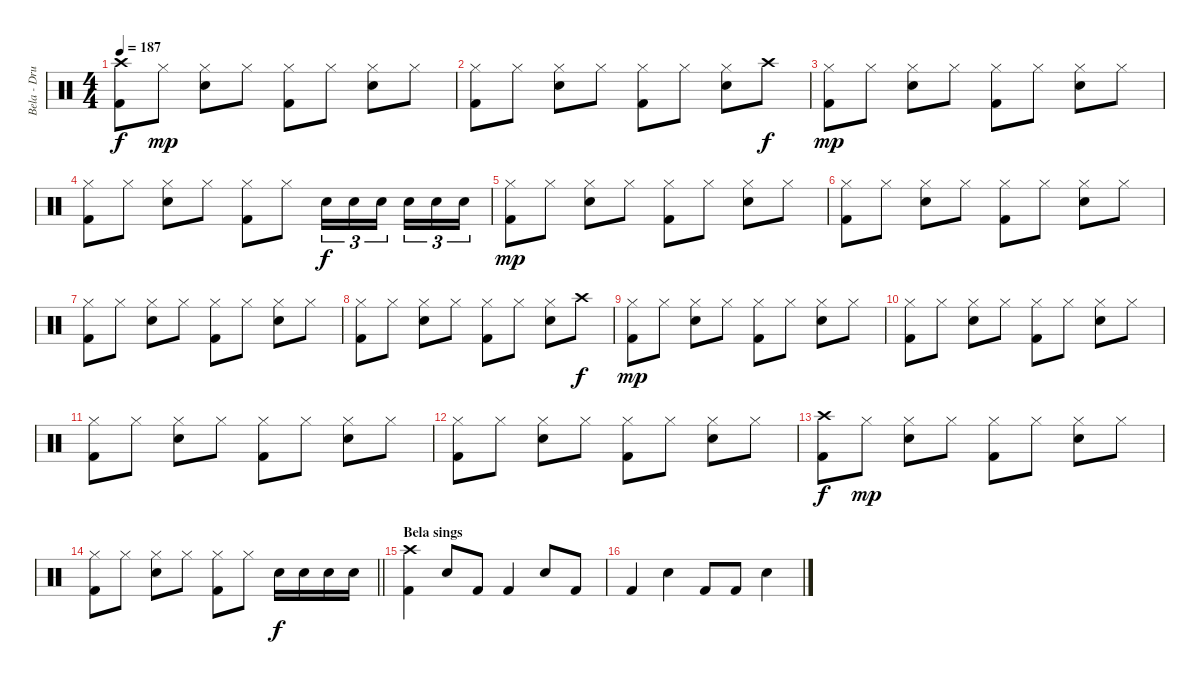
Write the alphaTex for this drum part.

\track ("Bela - Drums" "Bela - Dru") {instrument percussion}
\staff {score}
\articulation defaults
\ts (4 4)
\tempo 187
\clef neutral
\ks c
("Crash high (hit)" "Kick (hit) 2").8{dy f} "Hi-Hat (closed)".8{dy mp} ("Hi-Hat (closed)" "Snare (hit) 2").8 "Hi-Hat (closed)".8 ("Hi-Hat (closed)" "Kick (hit) 2").8 "Hi-Hat (closed)".8 ("Hi-Hat (closed)" "Snare (hit) 2").8 "Hi-Hat (closed)".8 |
("Hi-Hat (closed)" "Kick (hit) 2").8 "Hi-Hat (closed)".8 ("Hi-Hat (closed)" "Snare (hit) 2").8 "Hi-Hat (closed)".8 ("Hi-Hat (closed)" "Kick (hit) 2").8 "Hi-Hat (closed)".8 ("Hi-Hat (closed)" "Snare (hit) 2").8 "Crash high (hit)".8{dy f} |
("Hi-Hat (closed)" "Kick (hit) 2").8{dy mp} "Hi-Hat (closed)".8 ("Hi-Hat (closed)" "Snare (hit) 2").8 "Hi-Hat (closed)".8 ("Hi-Hat (closed)" "Kick (hit) 2").8 "Hi-Hat (closed)".8 ("Hi-Hat (closed)" "Snare (hit) 2").8 "Hi-Hat (closed)".8 |
("Hi-Hat (closed)" "Kick (hit) 2").8 "Hi-Hat (closed)".8 ("Hi-Hat (closed)" "Snare (hit) 2").8 "Hi-Hat (closed)".8 ("Hi-Hat (closed)" "Kick (hit) 2").8 "Hi-Hat (closed)".8 "Snare (hit) 2".16{tu (3 2) dy f} "Snare (hit) 2".16{tu (3 2)} "Snare (hit) 2".16{tu (3 2)} "Snare (hit) 2".16{tu (3 2)} "Snare (hit) 2".16{tu (3 2)} "Snare (hit) 2".16{tu (3 2)} |
("Hi-Hat (closed)" "Kick (hit) 2").8{dy mp} "Hi-Hat (closed)".8 ("Hi-Hat (closed)" "Snare (hit) 2").8 "Hi-Hat (closed)".8 ("Hi-Hat (closed)" "Kick (hit) 2").8 "Hi-Hat (closed)".8 ("Hi-Hat (closed)" "Snare (hit) 2").8 "Hi-Hat (closed)".8 |
("Hi-Hat (closed)" "Kick (hit) 2").8 "Hi-Hat (closed)".8 ("Hi-Hat (closed)" "Snare (hit) 2").8 "Hi-Hat (closed)".8 ("Hi-Hat (closed)" "Kick (hit) 2").8 "Hi-Hat (closed)".8 ("Hi-Hat (closed)" "Snare (hit) 2").8 "Hi-Hat (closed)".8 |
("Hi-Hat (closed)" "Kick (hit) 2").8 "Hi-Hat (closed)".8 ("Hi-Hat (closed)" "Snare (hit) 2").8 "Hi-Hat (closed)".8 ("Hi-Hat (closed)" "Kick (hit) 2").8 "Hi-Hat (closed)".8 ("Hi-Hat (closed)" "Snare (hit) 2").8 "Hi-Hat (closed)".8 |
("Hi-Hat (closed)" "Kick (hit) 2").8 "Hi-Hat (closed)".8 ("Hi-Hat (closed)" "Snare (hit) 2").8 "Hi-Hat (closed)".8 ("Hi-Hat (closed)" "Kick (hit) 2").8 "Hi-Hat (closed)".8 ("Hi-Hat (closed)" "Snare (hit) 2").8 "Crash high (hit)".8{dy f} |
("Hi-Hat (closed)" "Kick (hit) 2").8{dy mp} "Hi-Hat (closed)".8 ("Hi-Hat (closed)" "Snare (hit) 2").8 "Hi-Hat (closed)".8 ("Hi-Hat (closed)" "Kick (hit) 2").8 "Hi-Hat (closed)".8 ("Hi-Hat (closed)" "Snare (hit) 2").8 "Hi-Hat (closed)".8 |
("Hi-Hat (closed)" "Kick (hit) 2").8 "Hi-Hat (closed)".8 ("Hi-Hat (closed)" "Snare (hit) 2").8 "Hi-Hat (closed)".8 ("Hi-Hat (closed)" "Kick (hit) 2").8 "Hi-Hat (closed)".8 ("Hi-Hat (closed)" "Snare (hit) 2").8 "Hi-Hat (closed)".8 |
("Hi-Hat (closed)" "Kick (hit) 2").8 "Hi-Hat (closed)".8 ("Hi-Hat (closed)" "Snare (hit) 2").8 "Hi-Hat (closed)".8 ("Hi-Hat (closed)" "Kick (hit) 2").8 "Hi-Hat (closed)".8 ("Hi-Hat (closed)" "Snare (hit) 2").8 "Hi-Hat (closed)".8 |
("Hi-Hat (closed)" "Kick (hit) 2").8 "Hi-Hat (closed)".8 ("Hi-Hat (closed)" "Snare (hit) 2").8 "Hi-Hat (closed)".8 ("Hi-Hat (closed)" "Kick (hit) 2").8 "Hi-Hat (closed)".8 ("Hi-Hat (closed)" "Snare (hit) 2").8 "Hi-Hat (closed)".8 |
("Crash high (hit)" "Kick (hit) 2").8{dy f} "Hi-Hat (closed)".8{dy mp} ("Hi-Hat (closed)" "Snare (hit) 2").8 "Hi-Hat (closed)".8 ("Hi-Hat (closed)" "Kick (hit) 2").8 "Hi-Hat (closed)".8 ("Hi-Hat (closed)" "Snare (hit) 2").8 "Hi-Hat (closed)".8 |
\barLineRight lightlight
("Hi-Hat (closed)" "Kick (hit) 2").8 "Hi-Hat (closed)".8 ("Hi-Hat (closed)" "Snare (hit) 2").8 "Hi-Hat (closed)".8 ("Hi-Hat (closed)" "Kick (hit) 2").8 "Hi-Hat (closed)".8 "Snare (hit) 2".16{dy f} "Snare (hit) 2".16 "Snare (hit) 2".16 "Snare (hit) 2".16 |
\section ("" "Bela sings")
("Crash high (hit)" "Kick (hit) 2").4 "Snare (hit) 2".8 "Kick (hit) 2".8 "Kick (hit) 2".4 "Snare (hit) 2".8 "Kick (hit) 2".8 |
"Kick (hit) 2".4 "Snare (hit) 2".4 "Kick (hit) 2".8 "Kick (hit) 2".8 "Snare (hit) 2".4
